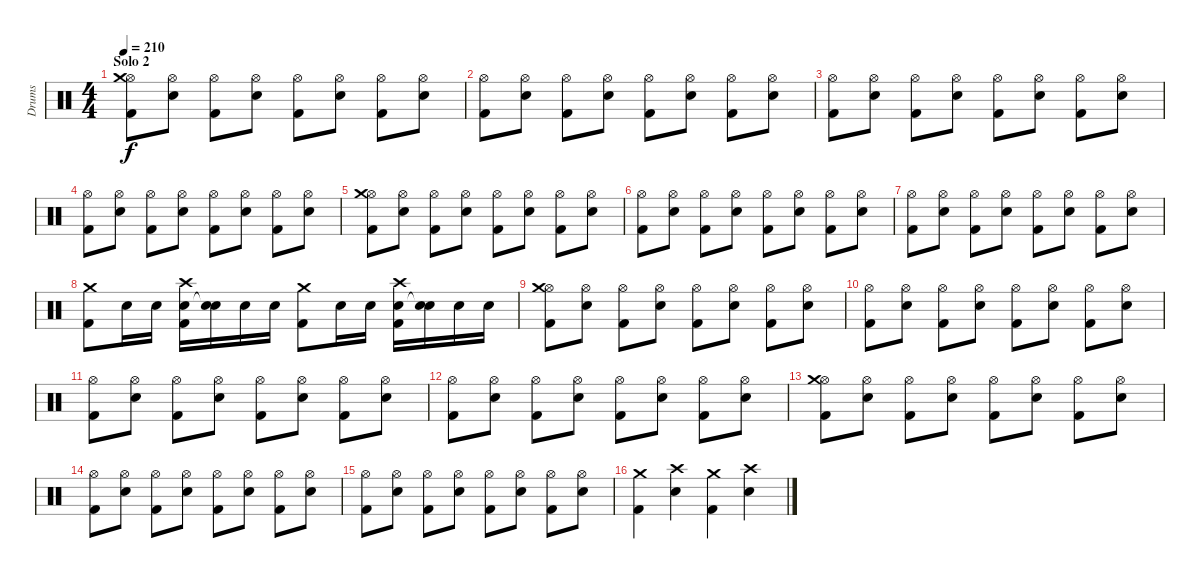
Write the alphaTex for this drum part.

\track ("Drums" "Drums") {instrument percussion}
\staff {score}
\articulation defaults
\ts (4 4)
\section ("" "Solo 2")
\tempo 210
\clef neutral
\ks c
("Hi-Hat (open)" "Crash medium (hit)" "Kick (hit) 2").8{dy f} ("Hi-Hat (open)" "Electric Snare (hit)").8 ("Hi-Hat (open)" "Kick (hit) 2").8 ("Hi-Hat (open)" "Electric Snare (hit)").8 ("Hi-Hat (open)" "Kick (hit) 2").8 ("Hi-Hat (open)" "Electric Snare (hit)").8 ("Hi-Hat (open)" "Kick (hit) 2").8 ("Hi-Hat (open)" "Electric Snare (hit)").8 |
("Hi-Hat (open)" "Kick (hit) 2").8 ("Hi-Hat (open)" "Electric Snare (hit)").8 ("Hi-Hat (open)" "Kick (hit) 2").8 ("Hi-Hat (open)" "Electric Snare (hit)").8 ("Hi-Hat (open)" "Kick (hit) 2").8 ("Hi-Hat (open)" "Electric Snare (hit)").8 ("Hi-Hat (open)" "Kick (hit) 2").8 ("Hi-Hat (open)" "Electric Snare (hit)").8 |
("Hi-Hat (open)" "Kick (hit) 2").8 ("Hi-Hat (open)" "Electric Snare (hit)").8 ("Hi-Hat (open)" "Kick (hit) 2").8 ("Hi-Hat (open)" "Electric Snare (hit)").8 ("Hi-Hat (open)" "Kick (hit) 2").8 ("Hi-Hat (open)" "Electric Snare (hit)").8 ("Hi-Hat (open)" "Kick (hit) 2").8 ("Hi-Hat (open)" "Electric Snare (hit)").8 |
("Hi-Hat (open)" "Kick (hit) 2").8 ("Hi-Hat (open)" "Electric Snare (hit)").8 ("Hi-Hat (open)" "Kick (hit) 2").8 ("Hi-Hat (open)" "Electric Snare (hit)").8 ("Hi-Hat (open)" "Kick (hit) 2").8 ("Hi-Hat (open)" "Electric Snare (hit)").8 ("Hi-Hat (open)" "Kick (hit) 2").8 ("Hi-Hat (open)" "Electric Snare (hit)").8 |
("Hi-Hat (open)" "Crash medium (hit)" "Kick (hit) 2").8 ("Hi-Hat (open)" "Electric Snare (hit)").8 ("Hi-Hat (open)" "Kick (hit) 2").8 ("Hi-Hat (open)" "Electric Snare (hit)").8 ("Hi-Hat (open)" "Kick (hit) 2").8 ("Hi-Hat (open)" "Electric Snare (hit)").8 ("Hi-Hat (open)" "Kick (hit) 2").8 ("Hi-Hat (open)" "Electric Snare (hit)").8 |
("Hi-Hat (open)" "Kick (hit) 2").8 ("Hi-Hat (open)" "Electric Snare (hit)").8 ("Hi-Hat (open)" "Kick (hit) 2").8 ("Hi-Hat (open)" "Electric Snare (hit)").8 ("Hi-Hat (open)" "Kick (hit) 2").8 ("Hi-Hat (open)" "Electric Snare (hit)").8 ("Hi-Hat (open)" "Kick (hit) 2").8 ("Hi-Hat (open)" "Electric Snare (hit)").8 |
("Hi-Hat (open)" "Kick (hit) 2").8 ("Hi-Hat (open)" "Electric Snare (hit)").8 ("Hi-Hat (open)" "Kick (hit) 2").8 ("Hi-Hat (open)" "Electric Snare (hit)").8 ("Hi-Hat (open)" "Kick (hit) 2").8 ("Hi-Hat (open)" "Electric Snare (hit)").8 ("Hi-Hat (open)" "Kick (hit) 2").8 ("Hi-Hat (open)" "Electric Snare (hit)").8 |
("Crash medium (hit)" "Kick (hit) 2").8 "Electric Snare (hit)".16 "Electric Snare (hit)".16 ("Crash high (hit)" "Electric Snare (hit)" "Kick (hit) 2").16 ("Electric Snare (hit)" "Snare (hit)"{t}).16 "Electric Snare (hit)".16 "Electric Snare (hit)".16 ("Crash medium (hit)" "Kick (hit) 2").8 "Electric Snare (hit)".16 "Electric Snare (hit)".16 ("Crash high (hit)" "Electric Snare (hit)" "Kick (hit) 2").16 ("Electric Snare (hit)" "Snare (hit)"{t}).16 "Electric Snare (hit)".16 "Electric Snare (hit)".16 |
("Hi-Hat (open)" "Crash medium (hit)" "Kick (hit) 2").8 ("Hi-Hat (open)" "Electric Snare (hit)").8 ("Hi-Hat (open)" "Kick (hit) 2").8 ("Hi-Hat (open)" "Electric Snare (hit)").8 ("Hi-Hat (open)" "Kick (hit) 2").8 ("Hi-Hat (open)" "Electric Snare (hit)").8 ("Hi-Hat (open)" "Kick (hit) 2").8 ("Hi-Hat (open)" "Electric Snare (hit)").8 |
("Hi-Hat (open)" "Kick (hit) 2").8 ("Hi-Hat (open)" "Electric Snare (hit)").8 ("Hi-Hat (open)" "Kick (hit) 2").8 ("Hi-Hat (open)" "Electric Snare (hit)").8 ("Hi-Hat (open)" "Kick (hit) 2").8 ("Hi-Hat (open)" "Electric Snare (hit)").8 ("Hi-Hat (open)" "Kick (hit) 2").8 ("Hi-Hat (open)" "Electric Snare (hit)").8 |
("Hi-Hat (open)" "Kick (hit) 2").8 ("Hi-Hat (open)" "Electric Snare (hit)").8 ("Hi-Hat (open)" "Kick (hit) 2").8 ("Hi-Hat (open)" "Electric Snare (hit)").8 ("Hi-Hat (open)" "Kick (hit) 2").8 ("Hi-Hat (open)" "Electric Snare (hit)").8 ("Hi-Hat (open)" "Kick (hit) 2").8 ("Hi-Hat (open)" "Electric Snare (hit)").8 |
("Hi-Hat (open)" "Kick (hit) 2").8 ("Hi-Hat (open)" "Electric Snare (hit)").8 ("Hi-Hat (open)" "Kick (hit) 2").8 ("Hi-Hat (open)" "Electric Snare (hit)").8 ("Hi-Hat (open)" "Kick (hit) 2").8 ("Hi-Hat (open)" "Electric Snare (hit)").8 ("Hi-Hat (open)" "Kick (hit) 2").8 ("Hi-Hat (open)" "Electric Snare (hit)").8 |
("Hi-Hat (open)" "Crash medium (hit)" "Kick (hit) 2").8 ("Hi-Hat (open)" "Electric Snare (hit)").8 ("Hi-Hat (open)" "Kick (hit) 2").8 ("Hi-Hat (open)" "Electric Snare (hit)").8 ("Hi-Hat (open)" "Kick (hit) 2").8 ("Hi-Hat (open)" "Electric Snare (hit)").8 ("Hi-Hat (open)" "Kick (hit) 2").8 ("Hi-Hat (open)" "Electric Snare (hit)").8 |
("Hi-Hat (open)" "Kick (hit) 2").8 ("Hi-Hat (open)" "Electric Snare (hit)").8 ("Hi-Hat (open)" "Kick (hit) 2").8 ("Hi-Hat (open)" "Electric Snare (hit)").8 ("Hi-Hat (open)" "Kick (hit) 2").8 ("Hi-Hat (open)" "Electric Snare (hit)").8 ("Hi-Hat (open)" "Kick (hit) 2").8 ("Hi-Hat (open)" "Electric Snare (hit)").8 |
("Hi-Hat (open)" "Kick (hit) 2").8 ("Hi-Hat (open)" "Electric Snare (hit)").8 ("Hi-Hat (open)" "Kick (hit) 2").8 ("Hi-Hat (open)" "Electric Snare (hit)").8 ("Hi-Hat (open)" "Kick (hit) 2").8 ("Hi-Hat (open)" "Electric Snare (hit)").8 ("Hi-Hat (open)" "Kick (hit) 2").8 ("Hi-Hat (open)" "Electric Snare (hit)").8 |
("Crash medium (hit)" "Kick (hit) 2").4 ("Crash high (hit)" "Electric Snare (hit)").4 ("Crash medium (hit)" "Kick (hit) 2").4 ("Crash high (hit)" "Electric Snare (hit)").4
